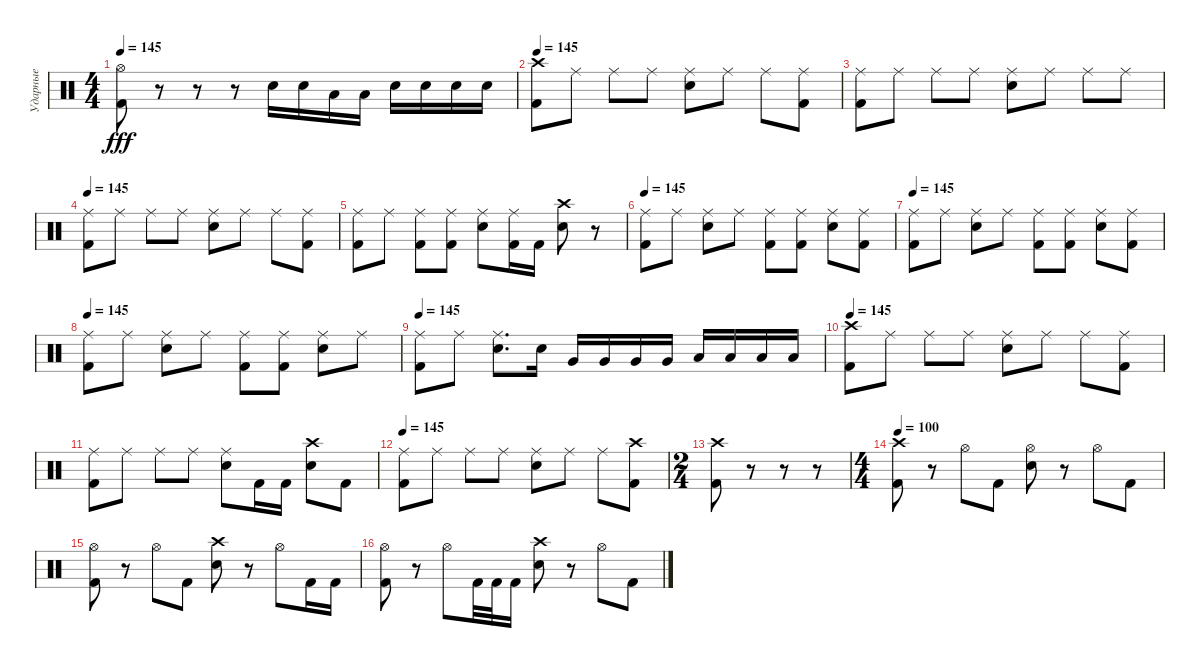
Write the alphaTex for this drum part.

\track ("Ударные" "Ударные") {instrument percussion}
\staff {score}
\articulation defaults
\ts (4 4)
\tempo 145
\clef neutral
\ks c
("Hi-Hat (open)" "Kick (hit) 2").8{dy fff} r.8{volume 0} r.8 r.8 "Electric Snare (hit)".16{volume 16} "Electric Snare (hit)".16 "Low Floor Tom (hit)".16 "Low Floor Tom (hit)".16 "Electric Snare (hit)".16 "Electric Snare (hit)".16 "Electric Snare (hit)".16 "Electric Snare (hit)".16 |
\tempo 145
("Crash high (hit)" "Kick (hit) 2").8 "Ride (middle)".8 "Ride (middle)".8 "Ride (middle)".8 ("Ride (middle)" "Electric Snare (hit)").8 "Ride (middle)".8 "Ride (middle)".8 ("Ride (middle)" "Kick (hit) 2").8 |
("Ride (middle)" "Kick (hit) 2").8 "Ride (middle)".8 "Ride (middle)".8 "Ride (middle)".8 ("Ride (middle)" "Electric Snare (hit)").8 "Ride (middle)".8 "Ride (middle)".8 "Ride (middle)".8 |
\tempo 145
("Ride (middle)" "Kick (hit) 2").8 "Ride (middle)".8 "Ride (middle)".8 "Ride (middle)".8 ("Ride (middle)" "Electric Snare (hit)").8 "Ride (middle)".8 "Ride (middle)".8 ("Ride (middle)" "Kick (hit) 2").8 |
("Ride (middle)" "Kick (hit) 2").8 "Ride (middle)".8 ("Ride (middle)" "Kick (hit) 2").8 ("Ride (middle)" "Kick (hit) 2").8 ("Ride (middle)" "Electric Snare (hit)").8 ("Ride (middle)" "Kick (hit) 2").16 "Kick (hit) 2".16 ("Crash high (hit)" "Electric Snare (hit)").8 r.8 |
\tempo 145
("Ride (middle)" "Kick (hit) 2").8 "Ride (middle)".8 ("Ride (middle)" "Electric Snare (hit)").8 "Ride (middle)".8 ("Ride (middle)" "Kick (hit) 2").8 ("Ride (middle)" "Kick (hit) 2").8 ("Ride (middle)" "Electric Snare (hit)").8 ("Ride (middle)" "Kick (hit) 2").8 |
\tempo 145
("Ride (middle)" "Kick (hit) 2").8 "Ride (middle)".8 ("Ride (middle)" "Electric Snare (hit)").8 "Ride (middle)".8 ("Ride (middle)" "Kick (hit) 2").8 ("Ride (middle)" "Kick (hit) 2").8 ("Ride (middle)" "Electric Snare (hit)").8 ("Ride (middle)" "Kick (hit) 2").8 |
\tempo 145
("Ride (middle)" "Kick (hit) 2").8 "Ride (middle)".8 ("Ride (middle)" "Electric Snare (hit)").8 "Ride (middle)".8 ("Ride (middle)" "Kick (hit) 2").8 ("Ride (middle)" "Kick (hit) 2").8 ("Ride (middle)" "Electric Snare (hit)").8 "Ride (middle)".8 |
\tempo 145
("Ride (middle)" "Kick (hit) 2").8 "Ride (middle)".8 ("Ride (middle)" "Electric Snare (hit)").8{d} "Electric Snare (hit)".16 "Very Low Tom (hit)".16 "Very Low Tom (hit)".16 "Very Low Tom (hit)".16 "Very Low Tom (hit)".16 "Low Floor Tom (hit)".16 "Low Floor Tom (hit)".16 "Low Floor Tom (hit)".16 "Low Floor Tom (hit)".16 |
\tempo 145
("Crash high (hit)" "Kick (hit) 2").8 "Ride (middle)".8 "Ride (middle)".8 "Ride (middle)".8 ("Ride (middle)" "Electric Snare (hit)").8 "Ride (middle)".8 "Ride (middle)".8 ("Ride (middle)" "Kick (hit) 2").8 |
("Ride (middle)" "Kick (hit) 2").8 "Ride (middle)".8 "Ride (middle)".8 "Ride (middle)".8 ("Ride (middle)" "Electric Snare (hit)").8 "Kick (hit) 2".16 "Kick (hit) 2".16 ("Crash high (hit)" "Electric Snare (hit)").8 "Kick (hit) 2".8 |
\tempo 145
("Ride (middle)" "Kick (hit) 2").8 "Ride (middle)".8 "Ride (middle)".8 "Ride (middle)".8 ("Ride (middle)" "Electric Snare (hit)").8 "Ride (middle)".8 "Ride (middle)".8 ("Crash high (hit)" "Kick (hit) 2").8 |
\ts (2 4)
("Crash high (hit)" "Kick (hit) 2").8 r.8 r.8 r.8 |
\ts (4 4)
\tempo 100
("Crash high (hit)" "Kick (hit) 2").8 r.8 "Hi-Hat (open)".8 "Kick (hit) 2".8 ("Hi-Hat (open)" "Electric Snare (hit)").8 r.8 "Hi-Hat (open)".8 "Kick (hit) 2".8 |
("Hi-Hat (open)" "Kick (hit) 2").8 r.8 "Hi-Hat (open)".8 "Kick (hit) 2".8 ("Crash high (hit)" "Electric Snare (hit)").8 r.8 "Hi-Hat (open)".8 "Kick (hit) 2".16 "Kick (hit) 2".16 |
("Hi-Hat (open)" "Kick (hit) 2").8 r.8 "Hi-Hat (open)".8 "Kick (hit) 2".32 "Kick (hit) 2".32 "Kick (hit) 2".16 ("Crash high (hit)" "Electric Snare (hit)").8 r.8 "Hi-Hat (open)".8 "Kick (hit) 2".8
